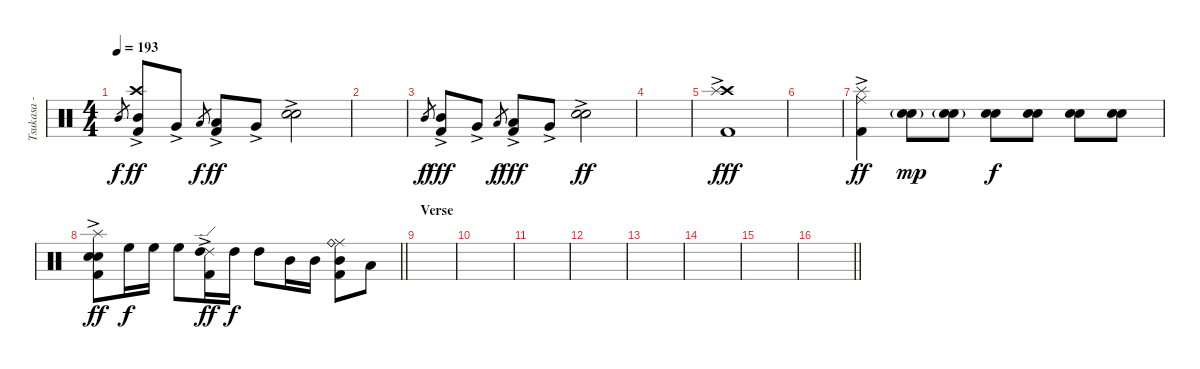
\track ("Tsukasa - Drums" "Tsukasa - ") {instrument percussion}
\staff {score}
\articulation defaults
\ts (4 4)
\section ("" "")
\tempo 193
\clef neutral
\ks c "Mid Tom (hit)".8{gr dy f}
("Crash high (hit)"{ac} "Mid Tom (hit)"{ac} "Kick (hit) 2").8{dy ff} "Very Low Tom (hit)"{ac}.8 "Low Tom (hit)".8{gr dy f} ("Low Tom (hit)"{ac} "Kick (hit) 2").8{dy ff} "Very Low Tom (hit)"{ac}.8 ("Electric Snare (hit)"{ac} "Snare (hit) 2"{ac}).2 |
|
"Mid Tom (hit)".8{gr dy f} ("Mid Tom (hit)"{ac} "Kick (hit) 2").8{dy fff} "Very Low Tom (hit)"{ac}.8 "Low Tom (hit)".8{gr dy f} ("Low Tom (hit)"{ac} "Kick (hit) 2").8{dy fff} "Very Low Tom (hit)"{ac}.8 ("Electric Snare (hit)"{ac} "Snare (hit) 2"{ac}).2{dy ff} |
|
("Crash high (hit)"{ac} "Splash (hit)"{ac} "Kick (hit) 2").1{dy fff} |
|
("Ride (middle)"{ac} "Splash (hit)"{ac} "Kick (hit) 2").4{dy ff} ("Electric Snare (hit)" "Snare (hit) 2"{g}).8{dy mp} ("Electric Snare (hit)" "Snare (hit) 2"{g}).8 ("Electric Snare (hit)" "Snare (hit) 2").8{dy f} ("Electric Snare (hit)" "Snare (hit) 2").8 ("Electric Snare (hit)" "Snare (hit) 2").8 ("Electric Snare (hit)" "Snare (hit) 2").8 |
\barLineRight lightlight
("Splash (hit)"{ac} "Electric Snare (hit)"{ac} "Snare (hit) 2" "Kick (hit) 2").8{dy ff} "High Floor Tom (hit)".16{dy f} "High Floor Tom (hit)".16 "High Floor Tom (hit)".8 ("Ride (edge) 2"{ac} "High Tom (hit)" "Kick (hit) 2").16{dy ff} "High Tom (hit)".16{dy f} "High Tom (hit)".8 "Mid Tom (hit)".16 "Mid Tom (hit)".16 ("Ride (middle)" "Ride (bell)" "Mid Tom (hit)" "Kick (hit) 2").8 "Low Tom (hit)".8 |
\section ("" "Verse")
|
|
|
|
|
|
|
\barLineRight lightlight
